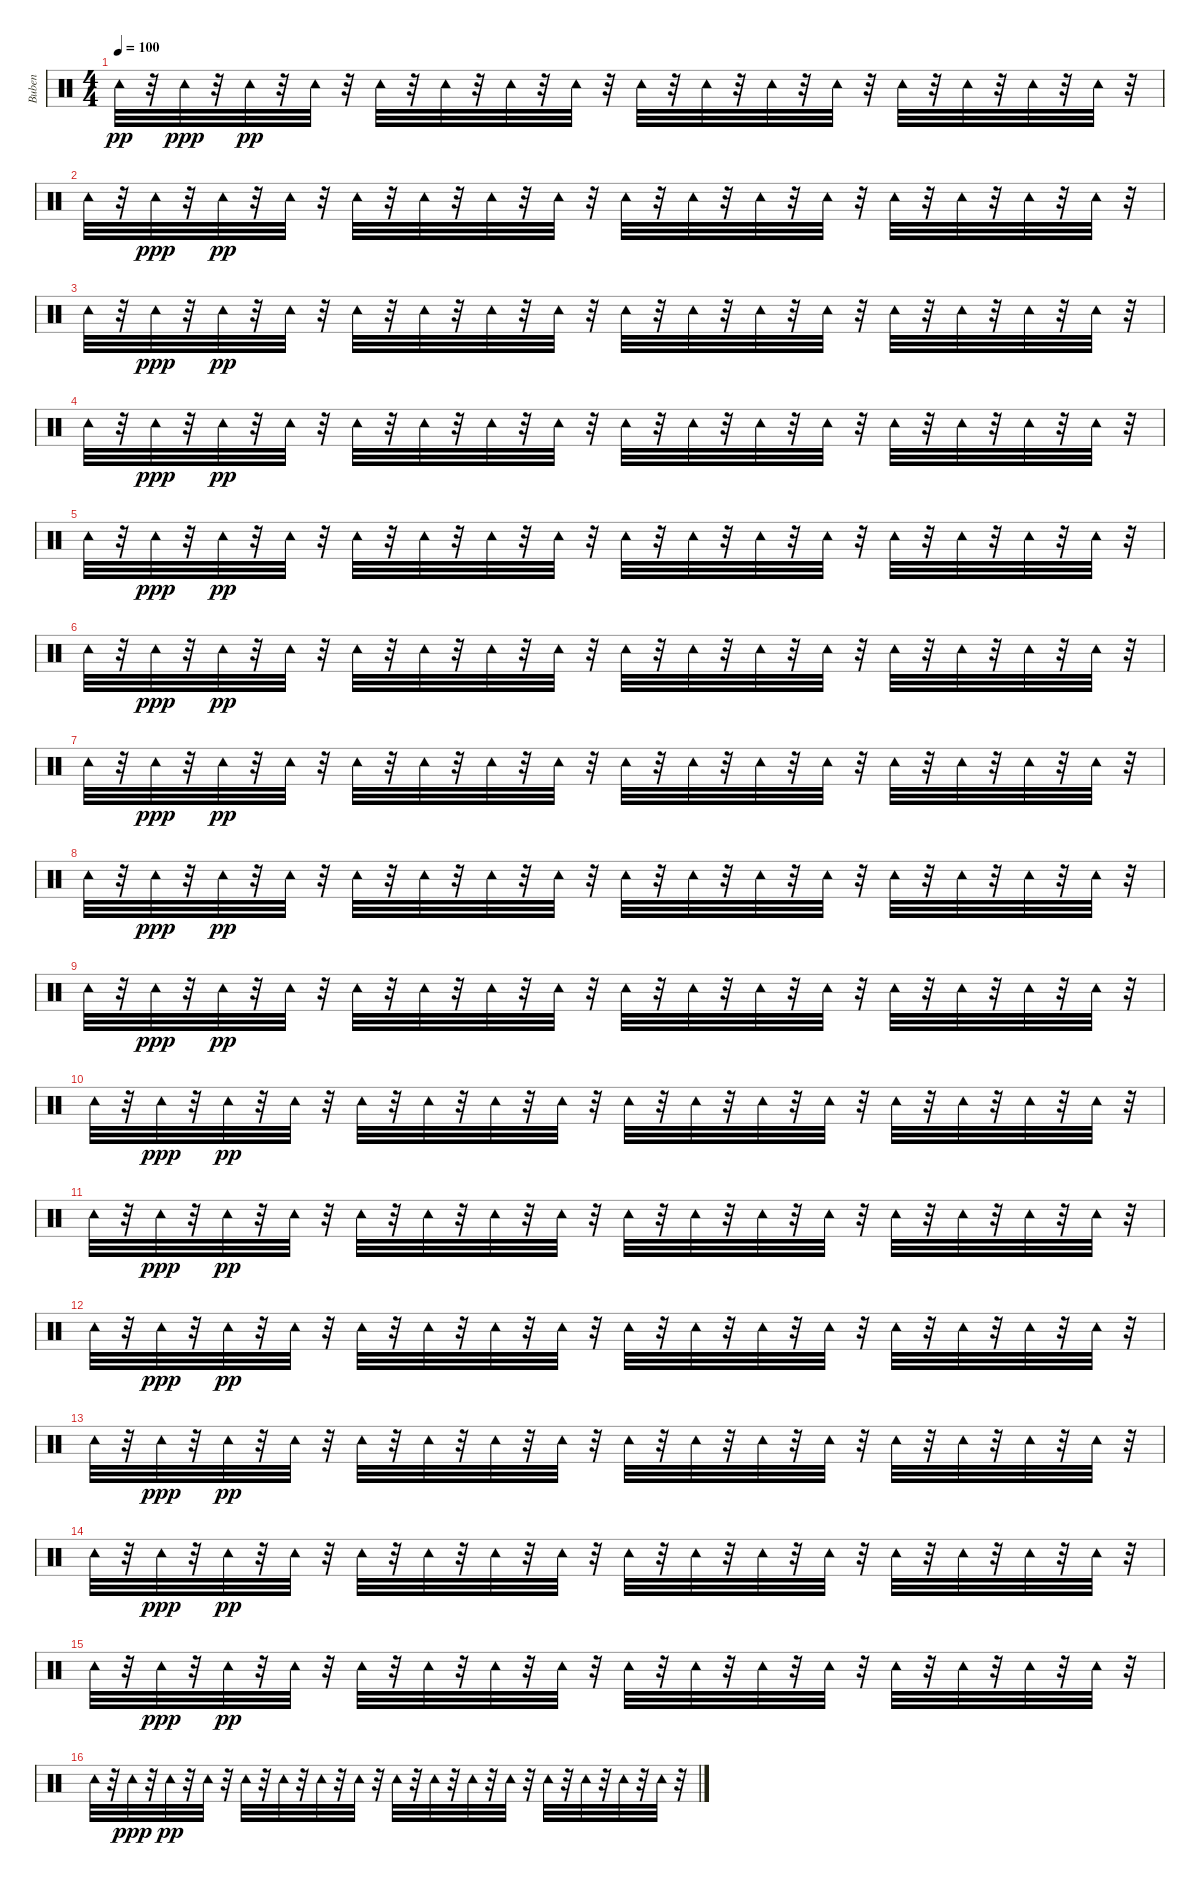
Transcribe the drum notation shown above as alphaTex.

\track ("Buben" "Buben") {instrument percussion}
\staff {score}
\articulation defaults
\ts (4 4)
\tempo 100
\clef neutral
\ks c "Tambourine (hit)".32{dy pp}
r.32 "Tambourine (hit)".32{dy ppp} r.32 "Tambourine (hit)".32{dy pp} r.32 "Tambourine (hit)".32 r.32 "Tambourine (hit)".32 r.32 "Tambourine (hit)".32 r.32 "Tambourine (hit)".32 r.32 "Tambourine (hit)".32 r.32 "Tambourine (hit)".32 r.32 "Tambourine (hit)".32 r.32 "Tambourine (hit)".32 r.32 "Tambourine (hit)".32 r.32 "Tambourine (hit)".32 r.32 "Tambourine (hit)".32 r.32 "Tambourine (hit)".32 r.32 "Tambourine (hit)".32 r.32 |
"Tambourine (hit)".32 r.32 "Tambourine (hit)".32{dy ppp} r.32 "Tambourine (hit)".32{dy pp} r.32 "Tambourine (hit)".32 r.32 "Tambourine (hit)".32 r.32 "Tambourine (hit)".32 r.32 "Tambourine (hit)".32 r.32 "Tambourine (hit)".32 r.32 "Tambourine (hit)".32 r.32 "Tambourine (hit)".32 r.32 "Tambourine (hit)".32 r.32 "Tambourine (hit)".32 r.32 "Tambourine (hit)".32 r.32 "Tambourine (hit)".32 r.32 "Tambourine (hit)".32 r.32 "Tambourine (hit)".32 r.32 |
"Tambourine (hit)".32 r.32 "Tambourine (hit)".32{dy ppp} r.32 "Tambourine (hit)".32{dy pp} r.32 "Tambourine (hit)".32 r.32 "Tambourine (hit)".32 r.32 "Tambourine (hit)".32 r.32 "Tambourine (hit)".32 r.32 "Tambourine (hit)".32 r.32 "Tambourine (hit)".32 r.32 "Tambourine (hit)".32 r.32 "Tambourine (hit)".32 r.32 "Tambourine (hit)".32 r.32 "Tambourine (hit)".32 r.32 "Tambourine (hit)".32 r.32 "Tambourine (hit)".32 r.32 "Tambourine (hit)".32 r.32 |
"Tambourine (hit)".32 r.32 "Tambourine (hit)".32{dy ppp} r.32 "Tambourine (hit)".32{dy pp} r.32 "Tambourine (hit)".32 r.32 "Tambourine (hit)".32 r.32 "Tambourine (hit)".32 r.32 "Tambourine (hit)".32 r.32 "Tambourine (hit)".32 r.32 "Tambourine (hit)".32 r.32 "Tambourine (hit)".32 r.32 "Tambourine (hit)".32 r.32 "Tambourine (hit)".32 r.32 "Tambourine (hit)".32 r.32 "Tambourine (hit)".32 r.32 "Tambourine (hit)".32 r.32 "Tambourine (hit)".32 r.32 |
"Tambourine (hit)".32 r.32 "Tambourine (hit)".32{dy ppp} r.32 "Tambourine (hit)".32{dy pp} r.32 "Tambourine (hit)".32 r.32 "Tambourine (hit)".32 r.32 "Tambourine (hit)".32 r.32 "Tambourine (hit)".32 r.32 "Tambourine (hit)".32 r.32 "Tambourine (hit)".32 r.32 "Tambourine (hit)".32 r.32 "Tambourine (hit)".32 r.32 "Tambourine (hit)".32 r.32 "Tambourine (hit)".32 r.32 "Tambourine (hit)".32 r.32 "Tambourine (hit)".32 r.32 "Tambourine (hit)".32 r.32 |
"Tambourine (hit)".32 r.32 "Tambourine (hit)".32{dy ppp} r.32 "Tambourine (hit)".32{dy pp} r.32 "Tambourine (hit)".32 r.32 "Tambourine (hit)".32 r.32 "Tambourine (hit)".32 r.32 "Tambourine (hit)".32 r.32 "Tambourine (hit)".32 r.32 "Tambourine (hit)".32 r.32 "Tambourine (hit)".32 r.32 "Tambourine (hit)".32 r.32 "Tambourine (hit)".32 r.32 "Tambourine (hit)".32 r.32 "Tambourine (hit)".32 r.32 "Tambourine (hit)".32 r.32 "Tambourine (hit)".32 r.32 |
"Tambourine (hit)".32 r.32 "Tambourine (hit)".32{dy ppp} r.32 "Tambourine (hit)".32{dy pp} r.32 "Tambourine (hit)".32 r.32 "Tambourine (hit)".32 r.32 "Tambourine (hit)".32 r.32 "Tambourine (hit)".32 r.32 "Tambourine (hit)".32 r.32 "Tambourine (hit)".32 r.32 "Tambourine (hit)".32 r.32 "Tambourine (hit)".32 r.32 "Tambourine (hit)".32 r.32 "Tambourine (hit)".32 r.32 "Tambourine (hit)".32 r.32 "Tambourine (hit)".32 r.32 "Tambourine (hit)".32 r.32 |
"Tambourine (hit)".32 r.32 "Tambourine (hit)".32{dy ppp} r.32 "Tambourine (hit)".32{dy pp} r.32 "Tambourine (hit)".32 r.32 "Tambourine (hit)".32 r.32 "Tambourine (hit)".32 r.32 "Tambourine (hit)".32 r.32 "Tambourine (hit)".32 r.32 "Tambourine (hit)".32 r.32 "Tambourine (hit)".32 r.32 "Tambourine (hit)".32 r.32 "Tambourine (hit)".32 r.32 "Tambourine (hit)".32 r.32 "Tambourine (hit)".32 r.32 "Tambourine (hit)".32 r.32 "Tambourine (hit)".32 r.32 |
"Tambourine (hit)".32 r.32 "Tambourine (hit)".32{dy ppp} r.32 "Tambourine (hit)".32{dy pp} r.32 "Tambourine (hit)".32 r.32 "Tambourine (hit)".32 r.32 "Tambourine (hit)".32 r.32 "Tambourine (hit)".32 r.32 "Tambourine (hit)".32 r.32 "Tambourine (hit)".32 r.32 "Tambourine (hit)".32 r.32 "Tambourine (hit)".32 r.32 "Tambourine (hit)".32 r.32 "Tambourine (hit)".32 r.32 "Tambourine (hit)".32 r.32 "Tambourine (hit)".32 r.32 "Tambourine (hit)".32 r.32 |
"Tambourine (hit)".32 r.32 "Tambourine (hit)".32{dy ppp} r.32 "Tambourine (hit)".32{dy pp} r.32 "Tambourine (hit)".32 r.32 "Tambourine (hit)".32 r.32 "Tambourine (hit)".32 r.32 "Tambourine (hit)".32 r.32 "Tambourine (hit)".32 r.32 "Tambourine (hit)".32 r.32 "Tambourine (hit)".32 r.32 "Tambourine (hit)".32 r.32 "Tambourine (hit)".32 r.32 "Tambourine (hit)".32 r.32 "Tambourine (hit)".32 r.32 "Tambourine (hit)".32 r.32 "Tambourine (hit)".32 r.32 |
"Tambourine (hit)".32 r.32 "Tambourine (hit)".32{dy ppp} r.32 "Tambourine (hit)".32{dy pp} r.32 "Tambourine (hit)".32 r.32 "Tambourine (hit)".32 r.32 "Tambourine (hit)".32 r.32 "Tambourine (hit)".32 r.32 "Tambourine (hit)".32 r.32 "Tambourine (hit)".32 r.32 "Tambourine (hit)".32 r.32 "Tambourine (hit)".32 r.32 "Tambourine (hit)".32 r.32 "Tambourine (hit)".32 r.32 "Tambourine (hit)".32 r.32 "Tambourine (hit)".32 r.32 "Tambourine (hit)".32 r.32 |
"Tambourine (hit)".32 r.32 "Tambourine (hit)".32{dy ppp} r.32 "Tambourine (hit)".32{dy pp} r.32 "Tambourine (hit)".32 r.32 "Tambourine (hit)".32 r.32 "Tambourine (hit)".32 r.32 "Tambourine (hit)".32 r.32 "Tambourine (hit)".32 r.32 "Tambourine (hit)".32 r.32 "Tambourine (hit)".32 r.32 "Tambourine (hit)".32 r.32 "Tambourine (hit)".32 r.32 "Tambourine (hit)".32 r.32 "Tambourine (hit)".32 r.32 "Tambourine (hit)".32 r.32 "Tambourine (hit)".32 r.32 |
"Tambourine (hit)".32 r.32 "Tambourine (hit)".32{dy ppp} r.32 "Tambourine (hit)".32{dy pp} r.32 "Tambourine (hit)".32 r.32 "Tambourine (hit)".32 r.32 "Tambourine (hit)".32 r.32 "Tambourine (hit)".32 r.32 "Tambourine (hit)".32 r.32 "Tambourine (hit)".32 r.32 "Tambourine (hit)".32 r.32 "Tambourine (hit)".32 r.32 "Tambourine (hit)".32 r.32 "Tambourine (hit)".32 r.32 "Tambourine (hit)".32 r.32 "Tambourine (hit)".32 r.32 "Tambourine (hit)".32 r.32 |
"Tambourine (hit)".32 r.32 "Tambourine (hit)".32{dy ppp} r.32 "Tambourine (hit)".32{dy pp} r.32 "Tambourine (hit)".32 r.32 "Tambourine (hit)".32 r.32 "Tambourine (hit)".32 r.32 "Tambourine (hit)".32 r.32 "Tambourine (hit)".32 r.32 "Tambourine (hit)".32 r.32 "Tambourine (hit)".32 r.32 "Tambourine (hit)".32 r.32 "Tambourine (hit)".32 r.32 "Tambourine (hit)".32 r.32 "Tambourine (hit)".32 r.32 "Tambourine (hit)".32 r.32 "Tambourine (hit)".32 r.32 |
"Tambourine (hit)".32 r.32 "Tambourine (hit)".32{dy ppp} r.32 "Tambourine (hit)".32{dy pp} r.32 "Tambourine (hit)".32 r.32 "Tambourine (hit)".32 r.32 "Tambourine (hit)".32 r.32 "Tambourine (hit)".32 r.32 "Tambourine (hit)".32 r.32 "Tambourine (hit)".32 r.32 "Tambourine (hit)".32 r.32 "Tambourine (hit)".32 r.32 "Tambourine (hit)".32 r.32 "Tambourine (hit)".32 r.32 "Tambourine (hit)".32 r.32 "Tambourine (hit)".32 r.32 "Tambourine (hit)".32 r.32 |
"Tambourine (hit)".32 r.32 "Tambourine (hit)".32{dy ppp} r.32 "Tambourine (hit)".32{dy pp} r.32 "Tambourine (hit)".32 r.32 "Tambourine (hit)".32 r.32 "Tambourine (hit)".32 r.32 "Tambourine (hit)".32 r.32 "Tambourine (hit)".32 r.32 "Tambourine (hit)".32 r.32 "Tambourine (hit)".32 r.32 "Tambourine (hit)".32 r.32 "Tambourine (hit)".32 r.32 "Tambourine (hit)".32 r.32 "Tambourine (hit)".32 r.32 "Tambourine (hit)".32 r.32 "Tambourine (hit)".32 r.32
